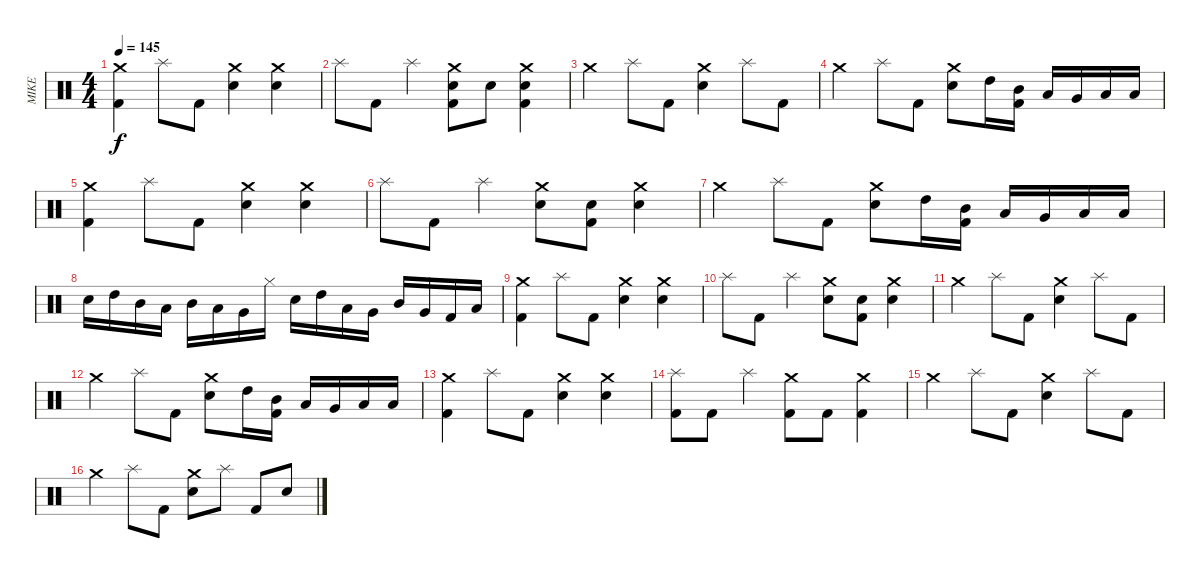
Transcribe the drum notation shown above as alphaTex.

\track ("MIKE" "MIKE") {instrument percussion}
\staff {score}
\articulation defaults
\ts (4 4)
\tempo 145
\clef neutral
\ks c
("Crash medium (hit)" "Kick (hit) 2").4{dy f} "Splash (hit)".8 "Kick (hit) 2".8 ("Crash medium (hit)" "Electric Snare (hit)").4 ("Crash medium (hit)" "Electric Snare (hit)").4 |
"Splash (hit)".8 "Kick (hit) 2".8 "Splash (hit)".4 ("Crash medium (hit)" "Electric Snare (hit)" "Kick (hit) 2").8 "Electric Snare (hit)".8 ("Crash medium (hit)" "Electric Snare (hit)" "Kick (hit) 2").4 |
"Crash medium (hit)".4 "Splash (hit)".8 "Kick (hit) 2".8 ("Electric Snare (hit)" "Crash medium (hit)").4 "Splash (hit)".8 "Kick (hit) 2".8 |
"Crash medium (hit)".4 "Splash (hit)".8 "Kick (hit) 2".8 ("Electric Snare (hit)" "Crash medium (hit)").8 "High Tom (hit)".16 ("Mid Tom (hit)" "Kick (hit) 2").16 "Low Tom (hit)".16 "Very Low Tom (hit)".16 "Low Floor Tom (hit)".16 "Low Floor Tom (hit)".16 |
("Crash medium (hit)" "Kick (hit) 2").4 "Splash (hit)".8 "Kick (hit) 2".8 ("Crash medium (hit)" "Electric Snare (hit)").4 ("Crash medium (hit)" "Electric Snare (hit)").4 |
"Splash (hit)".8 "Kick (hit) 2".8 "Splash (hit)".4 ("Crash medium (hit)" "Electric Snare (hit)").8 ("Electric Snare (hit)" "Kick (hit) 2").8 ("Crash medium (hit)" "Electric Snare (hit)").4 |
"Crash medium (hit)".4 "Splash (hit)".8 "Kick (hit) 2".8 ("Electric Snare (hit)" "Crash medium (hit)").8 "High Tom (hit)".16 ("Mid Tom (hit)" "Kick (hit) 2").16 "Low Tom (hit)".16 "Very Low Tom (hit)".16 "Low Floor Tom (hit)".16 "Low Floor Tom (hit)".16 |
"Electric Snare (hit)".16 "High Tom (hit)".16 "Mid Tom (hit)".16 "Low Tom (hit)".16 "Mid Tom (hit)".16 "Low Tom (hit)".16 "Very Low Tom (hit)".16 "Hi-Hat (closed)".16 "Electric Snare (hit)".16 "High Tom (hit)".16 "Low Tom (hit)".16 "Very Low Tom (hit)".16 "Mid Tom (hit)".16 "Very Low Tom (hit)".16 "Kick (hit) 2".16 "Low Floor Tom (hit)".16 |
("Crash medium (hit)" "Kick (hit) 2").4 "Splash (hit)".8 "Kick (hit) 2".8 ("Crash medium (hit)" "Electric Snare (hit)").4 ("Crash medium (hit)" "Electric Snare (hit)").4 |
"Splash (hit)".8 "Kick (hit) 2".8 "Splash (hit)".4 ("Crash medium (hit)" "Electric Snare (hit)").8 ("Electric Snare (hit)" "Kick (hit) 2").8 ("Crash medium (hit)" "Electric Snare (hit)").4 |
"Crash medium (hit)".4 "Splash (hit)".8 "Kick (hit) 2".8 ("Electric Snare (hit)" "Crash medium (hit)").4 "Splash (hit)".8 "Kick (hit) 2".8 |
"Crash medium (hit)".4 "Splash (hit)".8 "Kick (hit) 2".8 ("Electric Snare (hit)" "Crash medium (hit)").8 "High Tom (hit)".16 ("Mid Tom (hit)" "Kick (hit) 2").16 "Low Tom (hit)".16 "Very Low Tom (hit)".16 "Low Floor Tom (hit)".16 "Low Floor Tom (hit)".16 |
("Crash medium (hit)" "Kick (hit) 2").4 "Splash (hit)".8 "Kick (hit) 2".8 ("Crash medium (hit)" "Electric Snare (hit)").4 ("Crash medium (hit)" "Electric Snare (hit)").4 |
("Splash (hit)" "Kick (hit) 2").8 "Kick (hit) 2".8 "Splash (hit)".4 ("Crash medium (hit)" "Kick (hit) 2").8 "Kick (hit) 2".8 ("Crash medium (hit)" "Kick (hit) 2").4 |
"Crash medium (hit)".4 "Splash (hit)".8 "Kick (hit) 2".8 ("Electric Snare (hit)" "Crash medium (hit)").4 "Splash (hit)".8 "Kick (hit) 2".8 |
"Crash medium (hit)".4 "Splash (hit)".8 "Kick (hit) 2".8 ("Electric Snare (hit)" "Crash medium (hit)").8 "Splash (hit)".8 "Kick (hit) 2".8 "Electric Snare (hit)".8
